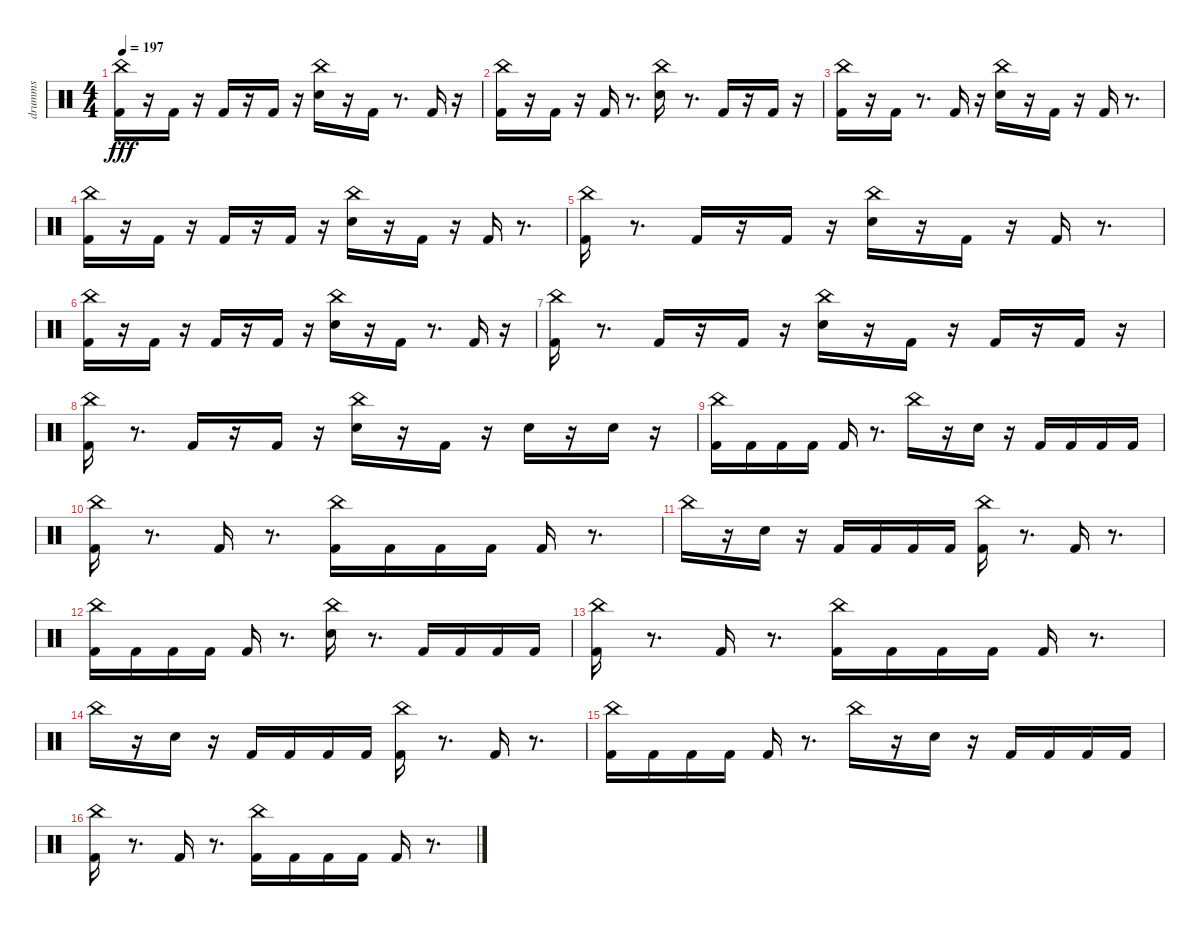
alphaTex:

\track ("drumms" "drumms") {instrument percussion}
\staff {score}
\articulation defaults
\ts (4 4)
\tempo 197
\clef neutral
\ks c
("Kick (hit) 2" "China (hit)").16{dy fff volume 12} r.16 "Kick (hit) 2".16{volume 12} r.16 "Kick (hit) 2".16 r.16 "Kick (hit) 2".16 r.16 ("Snare (hit) 2" "China (hit)").16{volume 12} r.16 "Kick (hit) 2".16{volume 12} r.8{d} "Kick (hit) 2".16 r.16 |
("China (hit)" "Kick (hit) 2").16 r.16 "Kick (hit) 2".16{volume 12} r.16 "Kick (hit) 2".16 r.8{d} ("Snare (hit) 2" "China (hit)").16{volume 12} r.8{d} "Kick (hit) 2".16{volume 12} r.16 "Kick (hit) 2".16 r.16 |
("Kick (hit) 2" "China (hit)").16{volume 12} r.16 "Kick (hit) 2".16{volume 12} r.8{d} "Kick (hit) 2".16 r.16 ("Snare (hit) 2" "China (hit)").16 r.16 "Kick (hit) 2".16 r.16 "Kick (hit) 2".16 r.8{d} |
("Kick (hit) 2" "China (hit)").16 r.16 "Kick (hit) 2".16 r.16 "Kick (hit) 2".16 r.16 "Kick (hit) 2".16 r.16 ("Snare (hit) 2" "China (hit)").16 r.16 "Kick (hit) 2".16 r.16 "Kick (hit) 2".16{volume 12} r.8{d} |
("Kick (hit) 2" "China (hit)").16{volume 12} r.8{d} "Kick (hit) 2".16{volume 12} r.16 "Kick (hit) 2".16{volume 12} r.16 ("Snare (hit) 2" "China (hit)").16{volume 12} r.16 "Kick (hit) 2".16 r.16 "Kick (hit) 2".16 r.8{d} |
("Kick (hit) 2" "China (hit)").16 r.16 "Kick (hit) 2".16 r.16 "Kick (hit) 2".16 r.16 "Kick (hit) 2".16{volume 12} r.16 ("Snare (hit) 2" "China (hit)").16{volume 12} r.16 "Kick (hit) 2".16 r.8{d} "Kick (hit) 2".16{volume 12} r.16 |
("Kick (hit) 2" "China (hit)").16{volume 12} r.8{d} "Kick (hit) 2".16{volume 12} r.16 "Kick (hit) 2".16 r.16 ("Snare (hit) 2" "China (hit)").16{volume 12} r.16 "Kick (hit) 2".16{volume 12} r.16 "Kick (hit) 2".16 r.16 "Kick (hit) 2".16 r.16 |
("Kick (hit) 2" "China (hit)").16 r.8{d} "Kick (hit) 2".16{volume 12} r.16 "Kick (hit) 2".16 r.16 ("Snare (hit) 2" "China (hit)").16{volume 12} r.16 "Kick (hit) 2".16 r.16 "Snare (hit) 2".16{volume 12} r.16 "Snare (hit) 2".16 r.16 |
("Kick (hit) 2" "China (hit)").16{volume 12} "Kick (hit) 2".16 "Kick (hit) 2".16 "Kick (hit) 2".16 "Kick (hit) 2".16 r.8{d} "China (hit)".16 r.16 "Snare (hit) 2".16 r.16 "Kick (hit) 2".16 "Kick (hit) 2".16 "Kick (hit) 2".16 "Kick (hit) 2".16 |
("Kick (hit) 2" "China (hit)").16 r.8{d} "Kick (hit) 2".16 r.8{d} ("Kick (hit) 2" "China (hit)").16 "Kick (hit) 2".16 "Kick (hit) 2".16 "Kick (hit) 2".16 "Kick (hit) 2".16 r.8{d} |
"China (hit)".16 r.16 "Snare (hit) 2".16 r.16 "Kick (hit) 2".16 "Kick (hit) 2".16 "Kick (hit) 2".16 "Kick (hit) 2".16 ("Kick (hit) 2" "China (hit)").16 r.8{d} "Kick (hit) 2".16 r.8{d} |
("Kick (hit) 2" "China (hit)").16 "Kick (hit) 2".16 "Kick (hit) 2".16 "Kick (hit) 2".16 "Kick (hit) 2".16 r.8{d} ("Snare (hit) 2" "China (hit)").16 r.8{d} "Kick (hit) 2".16 "Kick (hit) 2".16 "Kick (hit) 2".16 "Kick (hit) 2".16 |
("Kick (hit) 2" "China (hit)").16 r.8{d} "Kick (hit) 2".16 r.8{d} ("Kick (hit) 2" "China (hit)").16 "Kick (hit) 2".16 "Kick (hit) 2".16 "Kick (hit) 2".16 "Kick (hit) 2".16 r.8{d} |
"China (hit)".16 r.16 "Snare (hit) 2".16 r.16 "Kick (hit) 2".16 "Kick (hit) 2".16 "Kick (hit) 2".16 "Kick (hit) 2".16 ("Kick (hit) 2" "China (hit)").16 r.8{d} "Kick (hit) 2".16 r.8{d} |
("Kick (hit) 2" "China (hit)").16 "Kick (hit) 2".16 "Kick (hit) 2".16 "Kick (hit) 2".16 "Kick (hit) 2".16 r.8{d} "China (hit)".16 r.16 "Snare (hit) 2".16 r.16 "Kick (hit) 2".16 "Kick (hit) 2".16 "Kick (hit) 2".16 "Kick (hit) 2".16 |
("Kick (hit) 2" "China (hit)").16 r.8{d} "Kick (hit) 2".16 r.8{d} ("Kick (hit) 2" "China (hit)").16 "Kick (hit) 2".16 "Kick (hit) 2".16 "Kick (hit) 2".16 "Kick (hit) 2".16 r.8{d}
